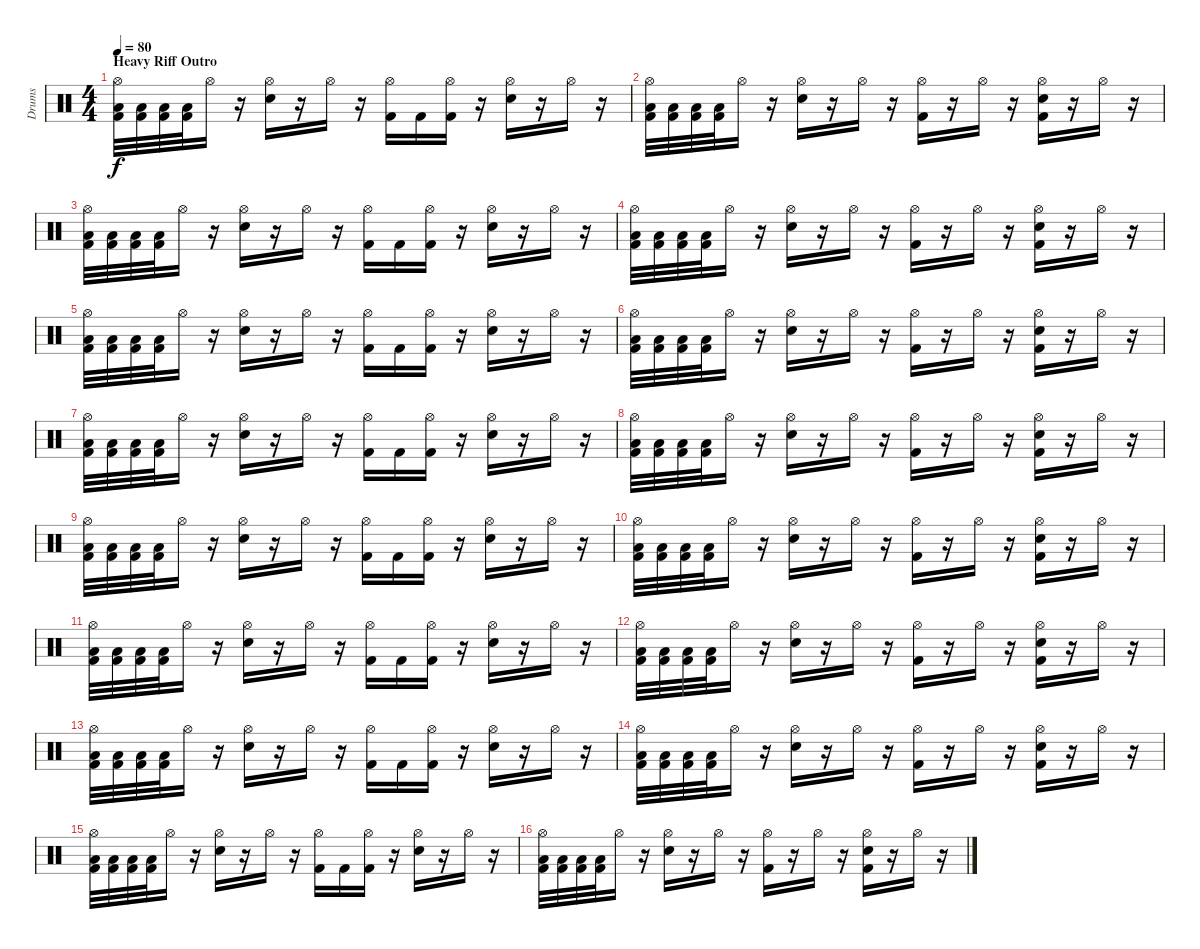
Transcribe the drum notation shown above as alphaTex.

\track ("Drums" "Drums") {instrument percussion}
\staff {score}
\articulation defaults
\ts (4 4)
\section ("" "Heavy Riff Outro")
\tempo 80
\clef neutral
\ks c
("Hi-Hat (open)" "Low Floor Tom (hit)" "Kick (hit) 2").32{dy f} ("Low Floor Tom (hit)" "Kick (hit) 2").32 ("Low Floor Tom (hit)" "Kick (hit) 2").32 ("Low Floor Tom (hit)" "Kick (hit) 2").32 "Hi-Hat (open)".16 r.16 ("Hi-Hat (open)" "Electric Snare (hit)").16 r.16 "Hi-Hat (open)".16 r.16 ("Hi-Hat (open)" "Kick (hit) 2").16 "Kick (hit) 2".16 ("Hi-Hat (open)" "Kick (hit) 2").16 r.16 ("Hi-Hat (open)" "Electric Snare (hit)").16 r.16 "Hi-Hat (open)".16 r.16 |
("Hi-Hat (open)" "Low Floor Tom (hit)" "Kick (hit) 2").32 ("Low Floor Tom (hit)" "Kick (hit) 2").32 ("Low Floor Tom (hit)" "Kick (hit) 2").32 ("Low Floor Tom (hit)" "Kick (hit) 2").32 "Hi-Hat (open)".16 r.16 ("Hi-Hat (open)" "Electric Snare (hit)").16 r.16 "Hi-Hat (open)".16 r.16 ("Hi-Hat (open)" "Kick (hit) 2").16 r.16 "Hi-Hat (open)".16 r.16 ("Hi-Hat (open)" "Electric Snare (hit)" "Kick (hit) 2").16 r.16 "Hi-Hat (open)".16 r.16 |
("Hi-Hat (open)" "Low Floor Tom (hit)" "Kick (hit) 2").32 ("Low Floor Tom (hit)" "Kick (hit) 2").32 ("Low Floor Tom (hit)" "Kick (hit) 2").32 ("Low Floor Tom (hit)" "Kick (hit) 2").32 "Hi-Hat (open)".16 r.16 ("Hi-Hat (open)" "Electric Snare (hit)").16 r.16 "Hi-Hat (open)".16 r.16 ("Hi-Hat (open)" "Kick (hit) 2").16 "Kick (hit) 2".16 ("Hi-Hat (open)" "Kick (hit) 2").16 r.16 ("Hi-Hat (open)" "Electric Snare (hit)").16 r.16 "Hi-Hat (open)".16 r.16 |
("Hi-Hat (open)" "Low Floor Tom (hit)" "Kick (hit) 2").32 ("Low Floor Tom (hit)" "Kick (hit) 2").32 ("Low Floor Tom (hit)" "Kick (hit) 2").32 ("Low Floor Tom (hit)" "Kick (hit) 2").32 "Hi-Hat (open)".16 r.16 ("Hi-Hat (open)" "Electric Snare (hit)").16 r.16 "Hi-Hat (open)".16 r.16 ("Hi-Hat (open)" "Kick (hit) 2").16 r.16 "Hi-Hat (open)".16 r.16 ("Hi-Hat (open)" "Electric Snare (hit)" "Kick (hit) 2").16 r.16 "Hi-Hat (open)".16 r.16 |
("Hi-Hat (open)" "Low Floor Tom (hit)" "Kick (hit) 2").32 ("Low Floor Tom (hit)" "Kick (hit) 2").32 ("Low Floor Tom (hit)" "Kick (hit) 2").32 ("Low Floor Tom (hit)" "Kick (hit) 2").32 "Hi-Hat (open)".16 r.16 ("Hi-Hat (open)" "Electric Snare (hit)").16 r.16 "Hi-Hat (open)".16 r.16 ("Hi-Hat (open)" "Kick (hit) 2").16 "Kick (hit) 2".16 ("Hi-Hat (open)" "Kick (hit) 2").16 r.16 ("Hi-Hat (open)" "Electric Snare (hit)").16 r.16 "Hi-Hat (open)".16 r.16 |
("Hi-Hat (open)" "Low Floor Tom (hit)" "Kick (hit) 2").32 ("Low Floor Tom (hit)" "Kick (hit) 2").32 ("Low Floor Tom (hit)" "Kick (hit) 2").32 ("Low Floor Tom (hit)" "Kick (hit) 2").32 "Hi-Hat (open)".16 r.16 ("Hi-Hat (open)" "Electric Snare (hit)").16 r.16 "Hi-Hat (open)".16 r.16 ("Hi-Hat (open)" "Kick (hit) 2").16 r.16 "Hi-Hat (open)".16 r.16 ("Hi-Hat (open)" "Electric Snare (hit)" "Kick (hit) 2").16 r.16 "Hi-Hat (open)".16 r.16 |
("Hi-Hat (open)" "Low Floor Tom (hit)" "Kick (hit) 2").32 ("Low Floor Tom (hit)" "Kick (hit) 2").32 ("Low Floor Tom (hit)" "Kick (hit) 2").32 ("Low Floor Tom (hit)" "Kick (hit) 2").32 "Hi-Hat (open)".16 r.16 ("Hi-Hat (open)" "Electric Snare (hit)").16 r.16 "Hi-Hat (open)".16 r.16 ("Hi-Hat (open)" "Kick (hit) 2").16 "Kick (hit) 2".16 ("Hi-Hat (open)" "Kick (hit) 2").16 r.16 ("Hi-Hat (open)" "Electric Snare (hit)").16 r.16 "Hi-Hat (open)".16 r.16 |
("Hi-Hat (open)" "Low Floor Tom (hit)" "Kick (hit) 2").32 ("Low Floor Tom (hit)" "Kick (hit) 2").32 ("Low Floor Tom (hit)" "Kick (hit) 2").32 ("Low Floor Tom (hit)" "Kick (hit) 2").32 "Hi-Hat (open)".16 r.16 ("Hi-Hat (open)" "Electric Snare (hit)").16 r.16 "Hi-Hat (open)".16 r.16 ("Hi-Hat (open)" "Kick (hit) 2").16 r.16 "Hi-Hat (open)".16 r.16 ("Hi-Hat (open)" "Electric Snare (hit)" "Kick (hit) 2").16 r.16 "Hi-Hat (open)".16 r.16 |
("Hi-Hat (open)" "Low Floor Tom (hit)" "Kick (hit) 2").32 ("Low Floor Tom (hit)" "Kick (hit) 2").32 ("Low Floor Tom (hit)" "Kick (hit) 2").32 ("Low Floor Tom (hit)" "Kick (hit) 2").32 "Hi-Hat (open)".16 r.16 ("Hi-Hat (open)" "Electric Snare (hit)").16 r.16 "Hi-Hat (open)".16 r.16 ("Hi-Hat (open)" "Kick (hit) 2").16 "Kick (hit) 2".16 ("Hi-Hat (open)" "Kick (hit) 2").16 r.16 ("Hi-Hat (open)" "Electric Snare (hit)").16 r.16 "Hi-Hat (open)".16 r.16 |
("Hi-Hat (open)" "Low Floor Tom (hit)" "Kick (hit) 2").32 ("Low Floor Tom (hit)" "Kick (hit) 2").32 ("Low Floor Tom (hit)" "Kick (hit) 2").32 ("Low Floor Tom (hit)" "Kick (hit) 2").32 "Hi-Hat (open)".16 r.16 ("Hi-Hat (open)" "Electric Snare (hit)").16 r.16 "Hi-Hat (open)".16 r.16 ("Hi-Hat (open)" "Kick (hit) 2").16 r.16 "Hi-Hat (open)".16 r.16 ("Hi-Hat (open)" "Electric Snare (hit)" "Kick (hit) 2").16 r.16 "Hi-Hat (open)".16 r.16 |
("Hi-Hat (open)" "Low Floor Tom (hit)" "Kick (hit) 2").32 ("Low Floor Tom (hit)" "Kick (hit) 2").32 ("Low Floor Tom (hit)" "Kick (hit) 2").32 ("Low Floor Tom (hit)" "Kick (hit) 2").32 "Hi-Hat (open)".16 r.16 ("Hi-Hat (open)" "Electric Snare (hit)").16 r.16 "Hi-Hat (open)".16 r.16 ("Hi-Hat (open)" "Kick (hit) 2").16 "Kick (hit) 2".16 ("Hi-Hat (open)" "Kick (hit) 2").16 r.16 ("Hi-Hat (open)" "Electric Snare (hit)").16 r.16 "Hi-Hat (open)".16 r.16 |
("Hi-Hat (open)" "Low Floor Tom (hit)" "Kick (hit) 2").32 ("Low Floor Tom (hit)" "Kick (hit) 2").32 ("Low Floor Tom (hit)" "Kick (hit) 2").32 ("Low Floor Tom (hit)" "Kick (hit) 2").32 "Hi-Hat (open)".16 r.16 ("Hi-Hat (open)" "Electric Snare (hit)").16 r.16 "Hi-Hat (open)".16 r.16 ("Hi-Hat (open)" "Kick (hit) 2").16 r.16 "Hi-Hat (open)".16 r.16 ("Hi-Hat (open)" "Electric Snare (hit)" "Kick (hit) 2").16 r.16 "Hi-Hat (open)".16 r.16 |
("Hi-Hat (open)" "Low Floor Tom (hit)" "Kick (hit) 2").32{volume 0} ("Low Floor Tom (hit)" "Kick (hit) 2").32 ("Low Floor Tom (hit)" "Kick (hit) 2").32 ("Low Floor Tom (hit)" "Kick (hit) 2").32 "Hi-Hat (open)".16 r.16 ("Hi-Hat (open)" "Electric Snare (hit)").16 r.16 "Hi-Hat (open)".16 r.16 ("Hi-Hat (open)" "Kick (hit) 2").16 "Kick (hit) 2".16 ("Hi-Hat (open)" "Kick (hit) 2").16 r.16 ("Hi-Hat (open)" "Electric Snare (hit)").16 r.16 "Hi-Hat (open)".16 r.16 |
("Hi-Hat (open)" "Low Floor Tom (hit)" "Kick (hit) 2").32 ("Low Floor Tom (hit)" "Kick (hit) 2").32 ("Low Floor Tom (hit)" "Kick (hit) 2").32 ("Low Floor Tom (hit)" "Kick (hit) 2").32 "Hi-Hat (open)".16 r.16 ("Hi-Hat (open)" "Electric Snare (hit)").16 r.16 "Hi-Hat (open)".16 r.16 ("Hi-Hat (open)" "Kick (hit) 2").16 r.16 "Hi-Hat (open)".16 r.16 ("Hi-Hat (open)" "Electric Snare (hit)" "Kick (hit) 2").16 r.16 "Hi-Hat (open)".16 r.16 |
("Hi-Hat (open)" "Low Floor Tom (hit)" "Kick (hit) 2").32 ("Low Floor Tom (hit)" "Kick (hit) 2").32 ("Low Floor Tom (hit)" "Kick (hit) 2").32 ("Low Floor Tom (hit)" "Kick (hit) 2").32 "Hi-Hat (open)".16 r.16 ("Hi-Hat (open)" "Electric Snare (hit)").16 r.16 "Hi-Hat (open)".16 r.16 ("Hi-Hat (open)" "Kick (hit) 2").16 "Kick (hit) 2".16 ("Hi-Hat (open)" "Kick (hit) 2").16 r.16 ("Hi-Hat (open)" "Electric Snare (hit)").16 r.16 "Hi-Hat (open)".16 r.16 |
("Hi-Hat (open)" "Low Floor Tom (hit)" "Kick (hit) 2").32 ("Low Floor Tom (hit)" "Kick (hit) 2").32 ("Low Floor Tom (hit)" "Kick (hit) 2").32 ("Low Floor Tom (hit)" "Kick (hit) 2").32 "Hi-Hat (open)".16 r.16 ("Hi-Hat (open)" "Electric Snare (hit)").16 r.16 "Hi-Hat (open)".16 r.16 ("Hi-Hat (open)" "Kick (hit) 2").16 r.16 "Hi-Hat (open)".16 r.16 ("Hi-Hat (open)" "Electric Snare (hit)" "Kick (hit) 2").16 r.16 "Hi-Hat (open)".16 r.16
